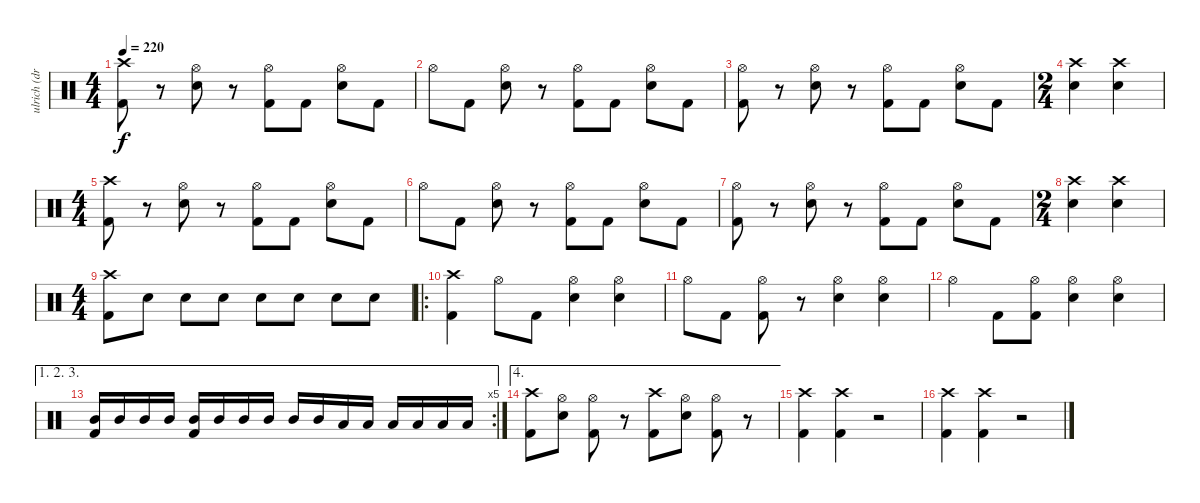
\track ("ulrich (drums)" "ulrich (dr") {instrument percussion}
\staff {score}
\articulation defaults
\ts (4 4)
\tempo 220
\clef neutral
\ks c
("Crash high (hit)" "Kick (hit) 2").8{dy f} r.8 ("Hi-Hat (open)" "Snare (hit) 2").8 r.8 ("Hi-Hat (open)" "Kick (hit) 2").8 "Kick (hit) 2".8 ("Hi-Hat (open)" "Snare (hit) 2").8 "Kick (hit) 2".8 |
"Hi-Hat (open)".8 "Kick (hit) 2".8 ("Hi-Hat (open)" "Snare (hit) 2").8 r.8 ("Hi-Hat (open)" "Kick (hit) 2").8 "Kick (hit) 2".8 ("Hi-Hat (open)" "Snare (hit) 2").8 "Kick (hit) 2".8 |
("Hi-Hat (open)" "Kick (hit) 2").8 r.8 ("Hi-Hat (open)" "Snare (hit) 2").8 r.8 ("Hi-Hat (open)" "Kick (hit) 2").8 "Kick (hit) 2".8 ("Hi-Hat (open)" "Snare (hit) 2").8 "Kick (hit) 2".8 |
\ts (2 4)
("Crash high (hit)" "Snare (hit) 2").4 ("Crash high (hit)" "Snare (hit) 2").4 |
\ts (4 4)
("Crash high (hit)" "Kick (hit) 2").8 r.8 ("Hi-Hat (open)" "Snare (hit) 2").8 r.8 ("Hi-Hat (open)" "Kick (hit) 2").8 "Kick (hit) 2".8 ("Hi-Hat (open)" "Snare (hit) 2").8 "Kick (hit) 2".8 |
"Hi-Hat (open)".8 "Kick (hit) 2".8 ("Hi-Hat (open)" "Snare (hit) 2").8 r.8 ("Hi-Hat (open)" "Kick (hit) 2").8 "Kick (hit) 2".8 ("Hi-Hat (open)" "Snare (hit) 2").8 "Kick (hit) 2".8 |
("Hi-Hat (open)" "Kick (hit) 2").8 r.8 ("Hi-Hat (open)" "Snare (hit) 2").8 r.8 ("Hi-Hat (open)" "Kick (hit) 2").8 "Kick (hit) 2".8 ("Hi-Hat (open)" "Snare (hit) 2").8 "Kick (hit) 2".8 |
\ts (2 4)
("Crash high (hit)" "Snare (hit) 2").4 ("Crash high (hit)" "Snare (hit) 2").4 |
\ts (4 4)
("Crash high (hit)" "Kick (hit) 2").8 "Snare (hit) 2".8 "Snare (hit) 2".8 "Snare (hit) 2".8 "Snare (hit) 2".8 "Snare (hit) 2".8 "Snare (hit) 2".8 "Snare (hit) 2".8 |
\ro
("Crash high (hit)" "Kick (hit) 2").4 "Hi-Hat (open)".8 "Kick (hit) 2".8 ("Hi-Hat (open)" "Snare (hit) 2").4 ("Hi-Hat (open)" "Snare (hit) 2").4 |
"Hi-Hat (open)".8 "Kick (hit) 2".8 ("Hi-Hat (open)" "Kick (hit) 2").8 r.8 ("Hi-Hat (open)" "Snare (hit) 2").4 ("Hi-Hat (open)" "Snare (hit) 2").4 |
"Hi-Hat (open)".4 "Kick (hit) 2".8 ("Hi-Hat (open)" "Kick (hit) 2").8 ("Hi-Hat (open)" "Snare (hit) 2").4 ("Hi-Hat (open)" "Snare (hit) 2").4 |
\ae (1 2 3)
\rc 5
("Mid Tom (hit)" "Kick (hit) 2").16 "Mid Tom (hit)".16 "Mid Tom (hit)".16 "Mid Tom (hit)".16 ("Mid Tom (hit)" "Kick (hit) 2").16 "Mid Tom (hit)".16 "Mid Tom (hit)".16 "Mid Tom (hit)".16 "Mid Tom (hit)".16 "Mid Tom (hit)".16 "Low Tom (hit)".16 "Low Tom (hit)".16 "Low Tom (hit)".16 "Low Tom (hit)".16 "Low Tom (hit)".16 "Low Tom (hit)".16 |
\ae 4
("Crash high (hit)" "Kick (hit) 2").8 ("Hi-Hat (open)" "Snare (hit) 2").8 ("Hi-Hat (open)" "Kick (hit) 2").8 r.8 ("Crash high (hit)" "Kick (hit) 2").8 ("Hi-Hat (open)" "Snare (hit) 2").8 ("Hi-Hat (open)" "Kick (hit) 2").8 r.8 |
("Crash high (hit)" "Kick (hit) 2").4 ("Crash high (hit)" "Kick (hit) 2").4 r.2 |
("Crash high (hit)" "Kick (hit) 2").4 ("Crash high (hit)" "Kick (hit) 2").4 r.2
